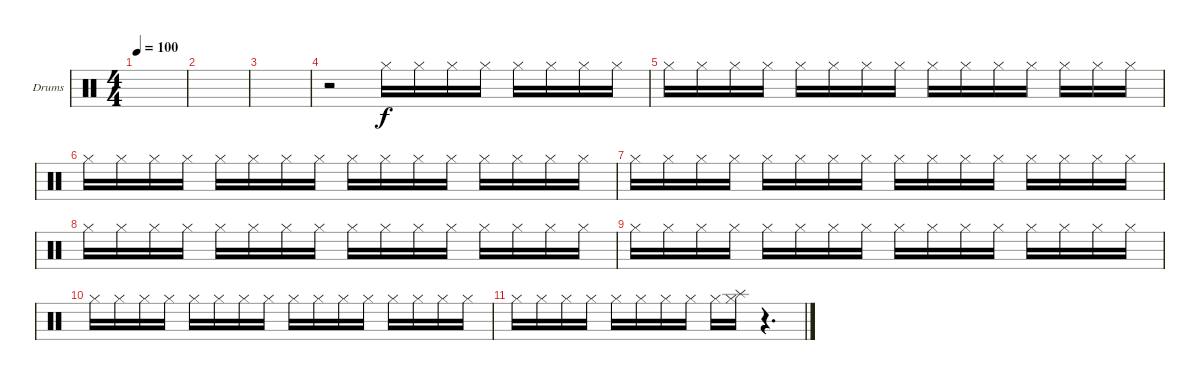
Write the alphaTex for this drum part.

\bracketExtendMode groupsimilarinstruments
\firstSystemTrackNameOrientation horizontal
\otherSystemsTrackNameOrientation horizontal
\track ("Ximbau" "Drums") {instrument percussion}
\staff {score}
\articulation defaults
\ts (4 4)
\tempo 100
\clef neutral
\scale
0.333333
\ks c
|
\scale
0.333333 |
\scale
0.333333 |
\scale
0.333333 r.2 "Hi-Hat (closed)".16 "Hi-Hat (closed)".16 "Hi-Hat (closed)".16 "Hi-Hat (closed)".16 "Hi-Hat (closed)".16 "Hi-Hat (closed)".16 "Hi-Hat (closed)".16 "Hi-Hat (closed)".16 |
\scale
0.333333 "Hi-Hat (closed)".16 "Hi-Hat (closed)".16 "Hi-Hat (closed)".16 "Hi-Hat (closed)".16 "Hi-Hat (closed)".16 "Hi-Hat (closed)".16 "Hi-Hat (closed)".16 "Hi-Hat (closed)".16 "Hi-Hat (closed)".16 "Hi-Hat (closed)".16 "Hi-Hat (closed)".16 "Hi-Hat (closed)".16 "Hi-Hat (closed)".16 "Hi-Hat (closed)".16 "Hi-Hat (closed)".16 |
\scale
0.333333 "Hi-Hat (closed)".16 "Hi-Hat (closed)".16 "Hi-Hat (closed)".16 "Hi-Hat (closed)".16 "Hi-Hat (closed)".16 "Hi-Hat (closed)".16 "Hi-Hat (closed)".16 "Hi-Hat (closed)".16 "Hi-Hat (closed)".16 "Hi-Hat (closed)".16 "Hi-Hat (closed)".16 "Hi-Hat (closed)".16 "Hi-Hat (closed)".16 "Hi-Hat (closed)".16 "Hi-Hat (closed)".16 "Hi-Hat (closed)".16 |
\scale
0.333333 "Hi-Hat (closed)".16 "Hi-Hat (closed)".16 "Hi-Hat (closed)".16 "Hi-Hat (closed)".16 "Hi-Hat (closed)".16 "Hi-Hat (closed)".16 "Hi-Hat (closed)".16 "Hi-Hat (closed)".16 "Hi-Hat (closed)".16 "Hi-Hat (closed)".16 "Hi-Hat (closed)".16 "Hi-Hat (closed)".16 "Hi-Hat (closed)".16 "Hi-Hat (closed)".16 "Hi-Hat (closed)".16 "Hi-Hat (closed)".16 |
\scale
0.333333 "Hi-Hat (closed)".16 "Hi-Hat (closed)".16 "Hi-Hat (closed)".16 "Hi-Hat (closed)".16 "Hi-Hat (closed)".16 "Hi-Hat (closed)".16 "Hi-Hat (closed)".16 "Hi-Hat (closed)".16 "Hi-Hat (closed)".16 "Hi-Hat (closed)".16 "Hi-Hat (closed)".16 "Hi-Hat (closed)".16 "Hi-Hat (closed)".16 "Hi-Hat (closed)".16 "Hi-Hat (closed)".16 "Hi-Hat (closed)".16 |
\scale
0.333333 "Hi-Hat (closed)".16 "Hi-Hat (closed)".16 "Hi-Hat (closed)".16 "Hi-Hat (closed)".16 "Hi-Hat (closed)".16 "Hi-Hat (closed)".16 "Hi-Hat (closed)".16 "Hi-Hat (closed)".16 "Hi-Hat (closed)".16 "Hi-Hat (closed)".16 "Hi-Hat (closed)".16 "Hi-Hat (closed)".16 "Hi-Hat (closed)".16 "Hi-Hat (closed)".16 "Hi-Hat (closed)".16 "Hi-Hat (closed)".16 |
"Hi-Hat (closed)".16 "Hi-Hat (closed)".16 "Hi-Hat (closed)".16 "Hi-Hat (closed)".16 "Hi-Hat (closed)".16 "Hi-Hat (closed)".16 "Hi-Hat (closed)".16 "Hi-Hat (closed)".16 "Hi-Hat (closed)".16 "Hi-Hat (closed)".16 "Hi-Hat (closed)".16 "Hi-Hat (closed)".16 "Hi-Hat (closed)".16 "Hi-Hat (closed)".16 "Hi-Hat (closed)".16 "Hi-Hat (closed)".16 |
"Hi-Hat (closed)".16 "Hi-Hat (closed)".16 "Hi-Hat (closed)".16 "Hi-Hat (closed)".16 "Hi-Hat (closed)".16 "Hi-Hat (closed)".16 "Hi-Hat (closed)".16 "Hi-Hat (closed)".16 "Hi-Hat (closed)".16 ("Hi-Hat (closed)" "Splash (hit)").16 r.4{d}
